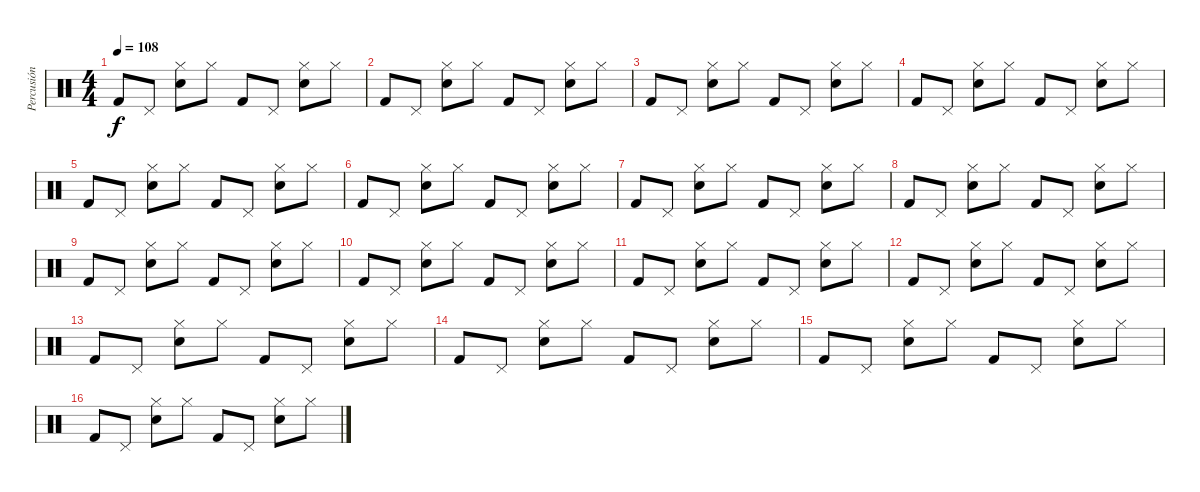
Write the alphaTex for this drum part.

\track ("Percusión" "Percusión") {instrument percussion}
\staff {score}
\articulation defaults
\ts (4 4)
\tempo 108
\clef neutral
\ks c "Kick (hit) 2".8{dy f} "Pedal Hi-Hat (hit)".8
("Electric Snare (hit)" "Hi-Hat (closed)").8 "Hi-Hat (closed)".8 "Kick (hit) 2".8 "Pedal Hi-Hat (hit)".8 ("Electric Snare (hit)" "Hi-Hat (closed)").8 "Hi-Hat (closed)".8 |
"Kick (hit) 2".8 "Pedal Hi-Hat (hit)".8 ("Electric Snare (hit)" "Hi-Hat (closed)").8 "Hi-Hat (closed)".8 "Kick (hit) 2".8 "Pedal Hi-Hat (hit)".8 ("Electric Snare (hit)" "Hi-Hat (closed)").8 "Hi-Hat (closed)".8 |
"Kick (hit) 2".8 "Pedal Hi-Hat (hit)".8 ("Electric Snare (hit)" "Hi-Hat (closed)").8 "Hi-Hat (closed)".8 "Kick (hit) 2".8 "Pedal Hi-Hat (hit)".8 ("Electric Snare (hit)" "Hi-Hat (closed)").8 "Hi-Hat (closed)".8 |
"Kick (hit) 2".8 "Pedal Hi-Hat (hit)".8 ("Electric Snare (hit)" "Hi-Hat (closed)").8 "Hi-Hat (closed)".8 "Kick (hit) 2".8 "Pedal Hi-Hat (hit)".8 ("Electric Snare (hit)" "Hi-Hat (closed)").8 "Hi-Hat (closed)".8 |
"Kick (hit) 2".8 "Pedal Hi-Hat (hit)".8 ("Electric Snare (hit)" "Hi-Hat (closed)").8 "Hi-Hat (closed)".8 "Kick (hit) 2".8 "Pedal Hi-Hat (hit)".8 ("Electric Snare (hit)" "Hi-Hat (closed)").8 "Hi-Hat (closed)".8 |
"Kick (hit) 2".8 "Pedal Hi-Hat (hit)".8 ("Electric Snare (hit)" "Hi-Hat (closed)").8 "Hi-Hat (closed)".8 "Kick (hit) 2".8 "Pedal Hi-Hat (hit)".8 ("Electric Snare (hit)" "Hi-Hat (closed)").8 "Hi-Hat (closed)".8 |
"Kick (hit) 2".8 "Pedal Hi-Hat (hit)".8 ("Electric Snare (hit)" "Hi-Hat (closed)").8 "Hi-Hat (closed)".8 "Kick (hit) 2".8 "Pedal Hi-Hat (hit)".8 ("Electric Snare (hit)" "Hi-Hat (closed)").8 "Hi-Hat (closed)".8 |
"Kick (hit) 2".8 "Pedal Hi-Hat (hit)".8 ("Electric Snare (hit)" "Hi-Hat (closed)").8 "Hi-Hat (closed)".8 "Kick (hit) 2".8 "Pedal Hi-Hat (hit)".8 ("Electric Snare (hit)" "Hi-Hat (closed)").8 "Hi-Hat (closed)".8 |
"Kick (hit) 2".8 "Pedal Hi-Hat (hit)".8 ("Electric Snare (hit)" "Hi-Hat (closed)").8 "Hi-Hat (closed)".8 "Kick (hit) 2".8 "Pedal Hi-Hat (hit)".8 ("Electric Snare (hit)" "Hi-Hat (closed)").8 "Hi-Hat (closed)".8 |
"Kick (hit) 2".8 "Pedal Hi-Hat (hit)".8 ("Electric Snare (hit)" "Hi-Hat (closed)").8 "Hi-Hat (closed)".8 "Kick (hit) 2".8 "Pedal Hi-Hat (hit)".8 ("Electric Snare (hit)" "Hi-Hat (closed)").8 "Hi-Hat (closed)".8 |
"Kick (hit) 2".8 "Pedal Hi-Hat (hit)".8 ("Electric Snare (hit)" "Hi-Hat (closed)").8 "Hi-Hat (closed)".8 "Kick (hit) 2".8 "Pedal Hi-Hat (hit)".8 ("Electric Snare (hit)" "Hi-Hat (closed)").8 "Hi-Hat (closed)".8 |
"Kick (hit) 2".8 "Pedal Hi-Hat (hit)".8 ("Electric Snare (hit)" "Hi-Hat (closed)").8 "Hi-Hat (closed)".8 "Kick (hit) 2".8 "Pedal Hi-Hat (hit)".8 ("Electric Snare (hit)" "Hi-Hat (closed)").8 "Hi-Hat (closed)".8 |
"Kick (hit) 2".8 "Pedal Hi-Hat (hit)".8 ("Electric Snare (hit)" "Hi-Hat (closed)").8 "Hi-Hat (closed)".8 "Kick (hit) 2".8 "Pedal Hi-Hat (hit)".8 ("Electric Snare (hit)" "Hi-Hat (closed)").8 "Hi-Hat (closed)".8 |
"Kick (hit) 2".8 "Pedal Hi-Hat (hit)".8 ("Electric Snare (hit)" "Hi-Hat (closed)").8 "Hi-Hat (closed)".8 "Kick (hit) 2".8 "Pedal Hi-Hat (hit)".8 ("Electric Snare (hit)" "Hi-Hat (closed)").8 "Hi-Hat (closed)".8 |
"Kick (hit) 2".8 "Pedal Hi-Hat (hit)".8 ("Electric Snare (hit)" "Hi-Hat (closed)").8 "Hi-Hat (closed)".8 "Kick (hit) 2".8 "Pedal Hi-Hat (hit)".8 ("Electric Snare (hit)" "Hi-Hat (closed)").8 "Hi-Hat (closed)".8 |
"Kick (hit) 2".8 "Pedal Hi-Hat (hit)".8 ("Electric Snare (hit)" "Hi-Hat (closed)").8 "Hi-Hat (closed)".8 "Kick (hit) 2".8 "Pedal Hi-Hat (hit)".8 ("Electric Snare (hit)" "Hi-Hat (closed)").8 "Hi-Hat (closed)".8
